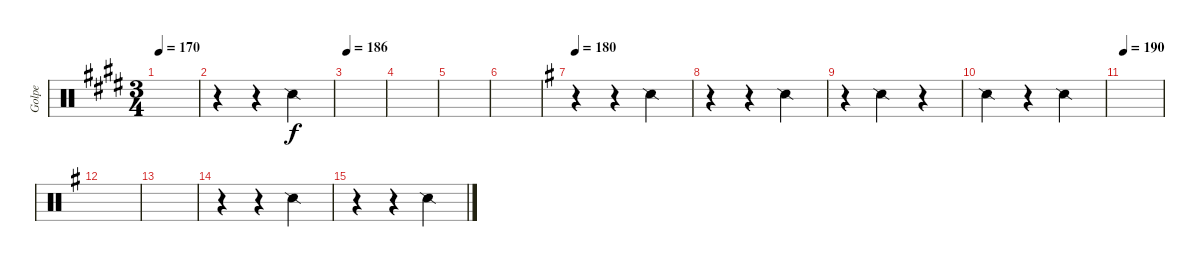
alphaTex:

\track ("Golpe" "Golpe") {instrument percussion}
\staff {score}
\articulation defaults
\ts (3 4)
\tempo 170
\clef neutral
\ks e
|
r.4 r.4 "Snare (side stick) 2".4 |
\tempo 186
|
|
|
|
\tempo 180
\ks eminor
r.4 r.4 "Snare (side stick) 2".4 |
r.4 r.4 "Snare (side stick) 2".4 |
r.4 "Snare (side stick) 2".4 r.4 |
"Snare (side stick) 2".4 r.4 "Snare (side stick) 2".4 |
\tempo 190
|
|
|
r.4 r.4 "Snare (side stick) 2".4 |
r.4 r.4 "Snare (side stick) 2".4
